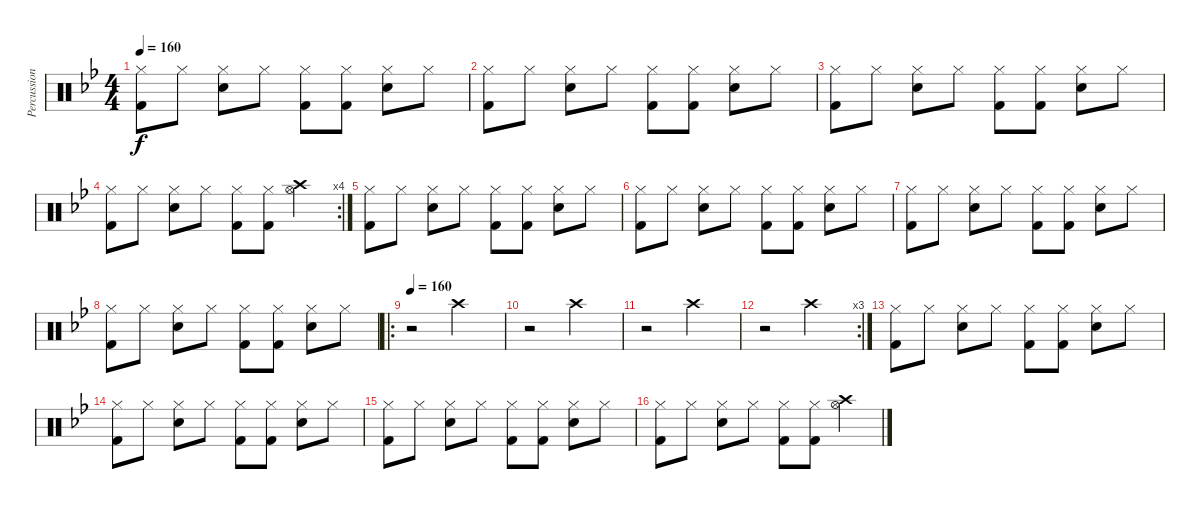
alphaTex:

\track ("Percussions" "Percussion") {instrument percussion}
\staff {score}
\articulation defaults
\ts (4 4)
\tempo 160
\clef neutral
\ks bb
("Hi-Hat (closed)" "Kick (hit) 2").8{dy f} "Hi-Hat (closed)".8 ("Hi-Hat (closed)" "Electric Snare (hit)").8 "Hi-Hat (closed)".8 ("Hi-Hat (closed)" "Kick (hit) 2").8 ("Hi-Hat (closed)" "Kick (hit) 2").8 ("Hi-Hat (closed)" "Electric Snare (hit)").8 "Hi-Hat (closed)".8 |
("Hi-Hat (closed)" "Kick (hit) 2").8 "Hi-Hat (closed)".8 ("Hi-Hat (closed)" "Electric Snare (hit)").8 "Hi-Hat (closed)".8 ("Hi-Hat (closed)" "Kick (hit) 2").8 ("Hi-Hat (closed)" "Kick (hit) 2").8 ("Hi-Hat (closed)" "Electric Snare (hit)").8 "Hi-Hat (closed)".8 |
("Hi-Hat (closed)" "Kick (hit) 2").8 "Hi-Hat (closed)".8 ("Hi-Hat (closed)" "Electric Snare (hit)").8 "Hi-Hat (closed)".8 ("Hi-Hat (closed)" "Kick (hit) 2").8 ("Hi-Hat (closed)" "Kick (hit) 2").8 ("Hi-Hat (closed)" "Electric Snare (hit)").8 "Hi-Hat (closed)".8 |
\rc 4
("Hi-Hat (closed)" "Kick (hit) 2").8 "Hi-Hat (closed)".8 ("Hi-Hat (closed)" "Electric Snare (hit)").8 "Hi-Hat (closed)".8 ("Hi-Hat (closed)" "Kick (hit) 2").8 ("Hi-Hat (closed)" "Kick (hit) 2").8 ("Hi-Hat (open)" "Crash high (hit)").4 |
("Hi-Hat (closed)" "Kick (hit) 2").8 "Hi-Hat (closed)".8 ("Hi-Hat (closed)" "Electric Snare (hit)").8 "Hi-Hat (closed)".8 ("Hi-Hat (closed)" "Kick (hit) 2").8 ("Hi-Hat (closed)" "Kick (hit) 2").8 ("Hi-Hat (closed)" "Electric Snare (hit)").8 "Hi-Hat (closed)".8 |
("Hi-Hat (closed)" "Kick (hit) 2").8 "Hi-Hat (closed)".8 ("Hi-Hat (closed)" "Electric Snare (hit)").8 "Hi-Hat (closed)".8 ("Hi-Hat (closed)" "Kick (hit) 2").8 ("Hi-Hat (closed)" "Kick (hit) 2").8 ("Hi-Hat (closed)" "Electric Snare (hit)").8 "Hi-Hat (closed)".8 |
("Hi-Hat (closed)" "Kick (hit) 2").8 "Hi-Hat (closed)".8 ("Hi-Hat (closed)" "Electric Snare (hit)").8 "Hi-Hat (closed)".8 ("Hi-Hat (closed)" "Kick (hit) 2").8 ("Hi-Hat (closed)" "Kick (hit) 2").8 ("Hi-Hat (closed)" "Electric Snare (hit)").8 "Hi-Hat (closed)".8 |
("Hi-Hat (closed)" "Kick (hit) 2").8 "Hi-Hat (closed)".8 ("Hi-Hat (closed)" "Electric Snare (hit)").8 "Hi-Hat (closed)".8 ("Hi-Hat (closed)" "Kick (hit) 2").8 ("Hi-Hat (closed)" "Kick (hit) 2").8 ("Hi-Hat (closed)" "Electric Snare (hit)").8 "Hi-Hat (closed)".8 |
\ro
\tempo 160
r.2 "Crash high (hit)".2 |
r.2 "Crash high (hit)".2 |
r.2 "Crash high (hit)".2 |
\rc 3
r.2 "Crash high (hit)".2 |
("Hi-Hat (closed)" "Kick (hit) 2").8 "Hi-Hat (closed)".8 ("Hi-Hat (closed)" "Electric Snare (hit)").8 "Hi-Hat (closed)".8 ("Hi-Hat (closed)" "Kick (hit) 2").8 ("Hi-Hat (closed)" "Kick (hit) 2").8 ("Hi-Hat (closed)" "Electric Snare (hit)").8 "Hi-Hat (closed)".8 |
("Hi-Hat (closed)" "Kick (hit) 2").8 "Hi-Hat (closed)".8 ("Hi-Hat (closed)" "Electric Snare (hit)").8 "Hi-Hat (closed)".8 ("Hi-Hat (closed)" "Kick (hit) 2").8 ("Hi-Hat (closed)" "Kick (hit) 2").8 ("Hi-Hat (closed)" "Electric Snare (hit)").8 "Hi-Hat (closed)".8 |
("Hi-Hat (closed)" "Kick (hit) 2").8 "Hi-Hat (closed)".8 ("Hi-Hat (closed)" "Electric Snare (hit)").8 "Hi-Hat (closed)".8 ("Hi-Hat (closed)" "Kick (hit) 2").8 ("Hi-Hat (closed)" "Kick (hit) 2").8 ("Hi-Hat (closed)" "Electric Snare (hit)").8 "Hi-Hat (closed)".8 |
("Hi-Hat (closed)" "Kick (hit) 2").8 "Hi-Hat (closed)".8 ("Hi-Hat (closed)" "Electric Snare (hit)").8 "Hi-Hat (closed)".8 ("Hi-Hat (closed)" "Kick (hit) 2").8 ("Hi-Hat (closed)" "Kick (hit) 2").8 ("Hi-Hat (open)" "Crash high (hit)").4
